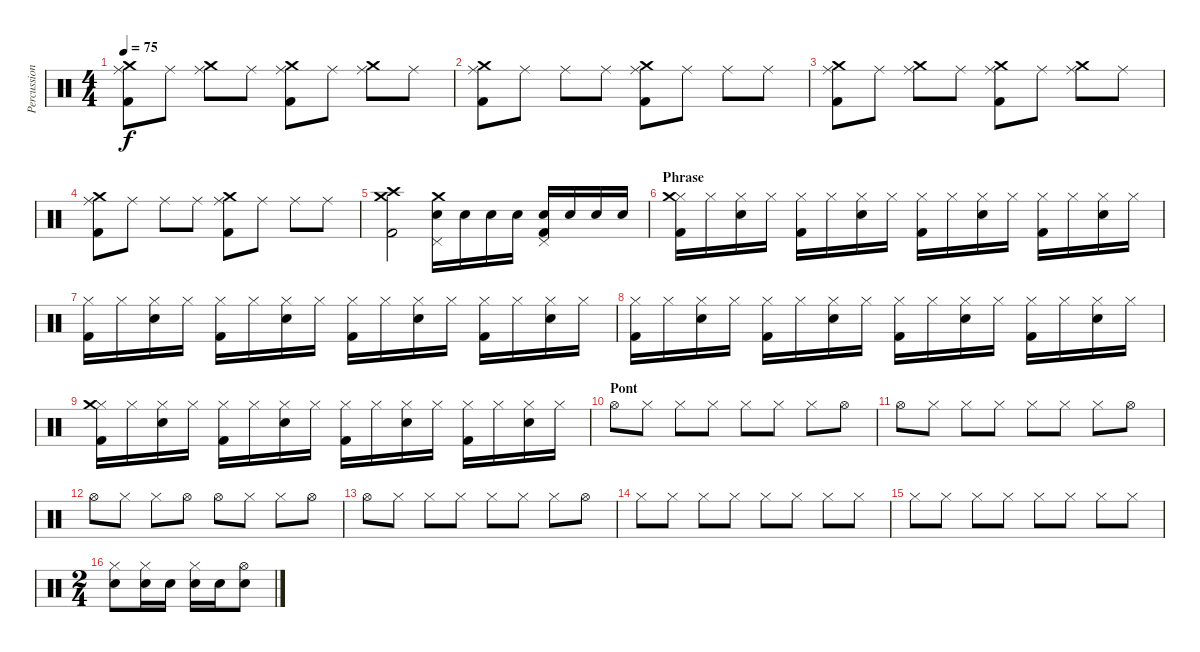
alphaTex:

\track ("Percussions" "Percussion") {instrument percussion}
\staff {score}
\articulation defaults
\ts (4 4)
\tempo 75
\clef neutral
\ks c
("Ride (middle)" "Crash medium (hit)" "Kick (hit) 2").8{dy f} "Ride (middle)".8 ("Ride (middle)" "Crash medium (hit)").8 "Ride (middle)".8 ("Ride (middle)" "Crash medium (hit)" "Kick (hit) 2").8 "Ride (middle)".8 ("Ride (middle)" "Crash medium (hit)").8 "Ride (middle)".8 |
("Ride (middle)" "Crash medium (hit)" "Kick (hit) 2").8 "Ride (middle)".8 "Ride (middle)".8 "Ride (middle)".8 ("Ride (middle)" "Crash medium (hit)" "Kick (hit) 2").8 "Ride (middle)".8 "Ride (middle)".8 "Ride (middle)".8 |
("Ride (middle)" "Crash medium (hit)" "Kick (hit) 2").8 "Ride (middle)".8 ("Ride (middle)" "Crash medium (hit)").8 "Ride (middle)".8 ("Ride (middle)" "Crash medium (hit)" "Kick (hit) 2").8 "Ride (middle)".8 ("Ride (middle)" "Crash medium (hit)").8 "Ride (middle)".8 |
("Ride (middle)" "Crash medium (hit)" "Kick (hit) 2").8 "Ride (middle)".8 "Ride (middle)".8 "Ride (middle)".8 ("Ride (middle)" "Crash medium (hit)" "Kick (hit) 2").8 "Ride (middle)".8 "Ride (middle)".8 "Ride (middle)".8 |
("Crash medium (hit)" "Crash high (hit)" "Kick (hit) 2").2 ("Pedal Hi-Hat (hit)" "Crash medium (hit)" "Electric Snare (hit)").16 "Electric Snare (hit)".16 "Electric Snare (hit)".16 "Electric Snare (hit)".16 ("Pedal Hi-Hat (hit)" "Electric Snare (hit)" "Kick (hit) 2").16 "Electric Snare (hit)".16 "Electric Snare (hit)".16 "Electric Snare (hit)".16 |
\section ("" "Phrase")
("Hi-Hat (closed)" "Crash medium (hit)" "Kick (hit) 2").16 "Hi-Hat (closed)".16 ("Hi-Hat (closed)" "Electric Snare (hit)").16 "Hi-Hat (closed)".16 ("Hi-Hat (closed)" "Kick (hit) 2").16 "Hi-Hat (closed)".16 ("Hi-Hat (closed)" "Electric Snare (hit)").16 "Hi-Hat (closed)".16 ("Hi-Hat (closed)" "Kick (hit) 2").16 "Hi-Hat (closed)".16 ("Hi-Hat (closed)" "Electric Snare (hit)").16 "Hi-Hat (closed)".16 ("Hi-Hat (closed)" "Kick (hit) 2").16 "Hi-Hat (closed)".16 ("Hi-Hat (closed)" "Electric Snare (hit)").16 "Hi-Hat (closed)".16 |
("Hi-Hat (closed)" "Kick (hit) 2").16 "Hi-Hat (closed)".16 ("Hi-Hat (closed)" "Electric Snare (hit)").16 "Hi-Hat (closed)".16 ("Hi-Hat (closed)" "Kick (hit) 2").16 "Hi-Hat (closed)".16 ("Hi-Hat (closed)" "Electric Snare (hit)").16 "Hi-Hat (closed)".16 ("Hi-Hat (closed)" "Kick (hit) 2").16 "Hi-Hat (closed)".16 ("Hi-Hat (closed)" "Electric Snare (hit)").16 "Hi-Hat (closed)".16 ("Hi-Hat (closed)" "Kick (hit) 2").16 "Hi-Hat (closed)".16 ("Hi-Hat (closed)" "Electric Snare (hit)").16 "Hi-Hat (closed)".16 |
("Hi-Hat (closed)" "Kick (hit) 2").16 "Hi-Hat (closed)".16 ("Hi-Hat (closed)" "Electric Snare (hit)").16 "Hi-Hat (closed)".16 ("Hi-Hat (closed)" "Kick (hit) 2").16 "Hi-Hat (closed)".16 ("Hi-Hat (closed)" "Electric Snare (hit)").16 "Hi-Hat (closed)".16 ("Hi-Hat (closed)" "Kick (hit) 2").16 "Hi-Hat (closed)".16 ("Hi-Hat (closed)" "Electric Snare (hit)").16 "Hi-Hat (closed)".16 ("Hi-Hat (closed)" "Kick (hit) 2").16 "Hi-Hat (closed)".16 ("Hi-Hat (closed)" "Electric Snare (hit)").16 "Hi-Hat (closed)".16 |
("Hi-Hat (closed)" "Crash medium (hit)" "Kick (hit) 2").16 "Hi-Hat (closed)".16 ("Hi-Hat (closed)" "Electric Snare (hit)").16 "Hi-Hat (closed)".16 ("Hi-Hat (closed)" "Kick (hit) 2").16 "Hi-Hat (closed)".16 ("Hi-Hat (closed)" "Electric Snare (hit)").16 "Hi-Hat (closed)".16 ("Hi-Hat (closed)" "Kick (hit) 2").16 "Hi-Hat (closed)".16 ("Hi-Hat (closed)" "Electric Snare (hit)").16 "Hi-Hat (closed)".16 ("Hi-Hat (closed)" "Kick (hit) 2").16 "Hi-Hat (closed)".16 ("Hi-Hat (closed)" "Electric Snare (hit)").16 "Hi-Hat (closed)".16 |
\section ("" "Pont")
"Hi-Hat (open)".8 "Hi-Hat (closed)".8 "Hi-Hat (closed)".8 "Hi-Hat (closed)".8 "Hi-Hat (closed)".8 "Hi-Hat (closed)".8 "Hi-Hat (closed)".8 "Hi-Hat (open)".8 |
"Hi-Hat (open)".8 "Hi-Hat (closed)".8 "Hi-Hat (closed)".8 "Hi-Hat (closed)".8 "Hi-Hat (closed)".8 "Hi-Hat (closed)".8 "Hi-Hat (closed)".8 "Hi-Hat (open)".8 |
"Hi-Hat (open)".8 "Hi-Hat (closed)".8 "Hi-Hat (closed)".8 "Hi-Hat (open)".8 "Hi-Hat (open)".8 "Hi-Hat (closed)".8 "Hi-Hat (closed)".8 "Hi-Hat (open)".8 |
"Hi-Hat (open)".8 "Hi-Hat (closed)".8 "Hi-Hat (closed)".8 "Hi-Hat (closed)".8 "Hi-Hat (closed)".8 "Hi-Hat (closed)".8 "Hi-Hat (closed)".8 "Hi-Hat (open)".8 |
"Hi-Hat (closed)".8 "Hi-Hat (closed)".8 "Hi-Hat (closed)".8 "Hi-Hat (closed)".8 "Hi-Hat (closed)".8 "Hi-Hat (closed)".8 "Hi-Hat (closed)".8 "Hi-Hat (closed)".8 |
"Hi-Hat (closed)".8 "Hi-Hat (closed)".8 "Hi-Hat (closed)".8 "Hi-Hat (closed)".8 "Hi-Hat (closed)".8 "Hi-Hat (closed)".8 "Hi-Hat (closed)".8 "Hi-Hat (closed)".8 |
\ts (2 4)
("Hi-Hat (closed)" "Electric Snare (hit)").8 ("Hi-Hat (closed)" "Electric Snare (hit)").16 "Electric Snare (hit)".16 ("Hi-Hat (closed)" "Electric Snare (hit)").16 "Electric Snare (hit)".16 ("Hi-Hat (open)" "Electric Snare (hit)").8
